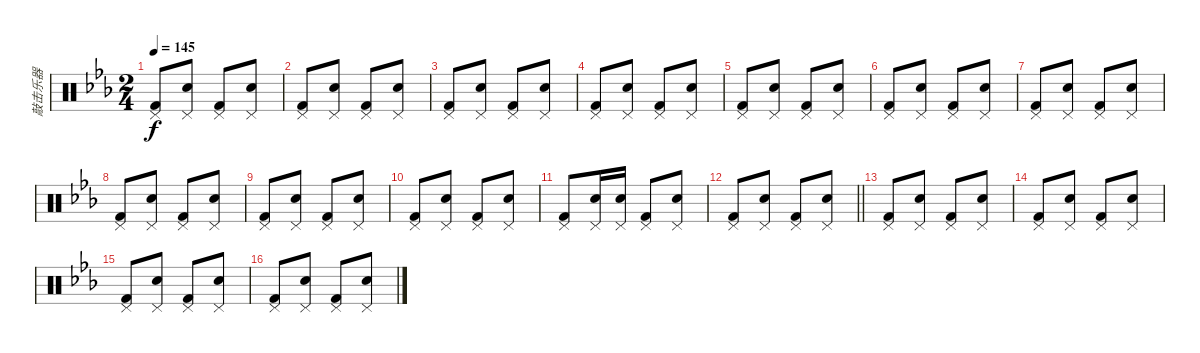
\track ("敲击乐器" "敲击乐器") {instrument percussion}
\staff {score}
\articulation defaults
\ts (2 4)
\tempo 145
\clef neutral
\ks eb
("Pedal Hi-Hat (hit)" "Kick (hit) 2").8{dy f} ("Pedal Hi-Hat (hit)" "Snare (hit) 2").8 ("Pedal Hi-Hat (hit)" "Kick (hit) 2").8 ("Pedal Hi-Hat (hit)" "Snare (hit) 2").8 |
("Pedal Hi-Hat (hit)" "Kick (hit) 2").8 ("Pedal Hi-Hat (hit)" "Snare (hit) 2").8 ("Pedal Hi-Hat (hit)" "Kick (hit) 2").8 ("Pedal Hi-Hat (hit)" "Snare (hit) 2").8 |
("Pedal Hi-Hat (hit)" "Kick (hit) 2").8 ("Pedal Hi-Hat (hit)" "Snare (hit) 2").8 ("Pedal Hi-Hat (hit)" "Kick (hit) 2").8 ("Pedal Hi-Hat (hit)" "Snare (hit) 2").8 |
("Pedal Hi-Hat (hit)" "Kick (hit) 2").8 ("Pedal Hi-Hat (hit)" "Snare (hit) 2").8 ("Pedal Hi-Hat (hit)" "Kick (hit) 2").8 ("Pedal Hi-Hat (hit)" "Snare (hit) 2").8 |
("Pedal Hi-Hat (hit)" "Kick (hit) 2").8 ("Pedal Hi-Hat (hit)" "Snare (hit) 2").8 ("Pedal Hi-Hat (hit)" "Kick (hit) 2").8 ("Pedal Hi-Hat (hit)" "Snare (hit) 2").8 |
("Pedal Hi-Hat (hit)" "Kick (hit) 2").8 ("Pedal Hi-Hat (hit)" "Snare (hit) 2").8 ("Pedal Hi-Hat (hit)" "Kick (hit) 2").8 ("Pedal Hi-Hat (hit)" "Snare (hit) 2").8 |
("Pedal Hi-Hat (hit)" "Kick (hit) 2").8 ("Pedal Hi-Hat (hit)" "Snare (hit) 2").8 ("Pedal Hi-Hat (hit)" "Kick (hit) 2").8 ("Pedal Hi-Hat (hit)" "Snare (hit) 2").8 |
("Pedal Hi-Hat (hit)" "Kick (hit) 2").8 ("Pedal Hi-Hat (hit)" "Snare (hit) 2").8 ("Pedal Hi-Hat (hit)" "Kick (hit) 2").8 ("Pedal Hi-Hat (hit)" "Snare (hit) 2").8 |
("Pedal Hi-Hat (hit)" "Kick (hit) 2").8 ("Pedal Hi-Hat (hit)" "Snare (hit) 2").8 ("Pedal Hi-Hat (hit)" "Kick (hit) 2").8 ("Pedal Hi-Hat (hit)" "Snare (hit) 2").8 |
("Pedal Hi-Hat (hit)" "Kick (hit) 2").8 ("Pedal Hi-Hat (hit)" "Snare (hit) 2").8 ("Pedal Hi-Hat (hit)" "Kick (hit) 2").8 ("Pedal Hi-Hat (hit)" "Snare (hit) 2").8 |
("Pedal Hi-Hat (hit)" "Kick (hit) 2").8 ("Pedal Hi-Hat (hit)" "Snare (hit) 2").16 ("Pedal Hi-Hat (hit)" "Snare (hit) 2").16 ("Pedal Hi-Hat (hit)" "Kick (hit) 2").8 ("Pedal Hi-Hat (hit)" "Snare (hit) 2").8 |
\barLineRight lightlight
("Pedal Hi-Hat (hit)" "Kick (hit) 2").8 ("Pedal Hi-Hat (hit)" "Snare (hit) 2").8 ("Pedal Hi-Hat (hit)" "Kick (hit) 2").8 ("Pedal Hi-Hat (hit)" "Snare (hit) 2").8 |
\section ("" "")
("Pedal Hi-Hat (hit)" "Kick (hit) 2").8 ("Pedal Hi-Hat (hit)" "Snare (hit) 2").8 ("Pedal Hi-Hat (hit)" "Kick (hit) 2").8 ("Pedal Hi-Hat (hit)" "Snare (hit) 2").8 |
("Pedal Hi-Hat (hit)" "Kick (hit) 2").8 ("Pedal Hi-Hat (hit)" "Snare (hit) 2").8 ("Pedal Hi-Hat (hit)" "Kick (hit) 2").8 ("Pedal Hi-Hat (hit)" "Snare (hit) 2").8 |
("Pedal Hi-Hat (hit)" "Kick (hit) 2").8 ("Pedal Hi-Hat (hit)" "Snare (hit) 2").8 ("Pedal Hi-Hat (hit)" "Kick (hit) 2").8 ("Pedal Hi-Hat (hit)" "Snare (hit) 2").8 |
("Pedal Hi-Hat (hit)" "Kick (hit) 2").8 ("Pedal Hi-Hat (hit)" "Snare (hit) 2").8 ("Pedal Hi-Hat (hit)" "Kick (hit) 2").8 ("Pedal Hi-Hat (hit)" "Snare (hit) 2").8
